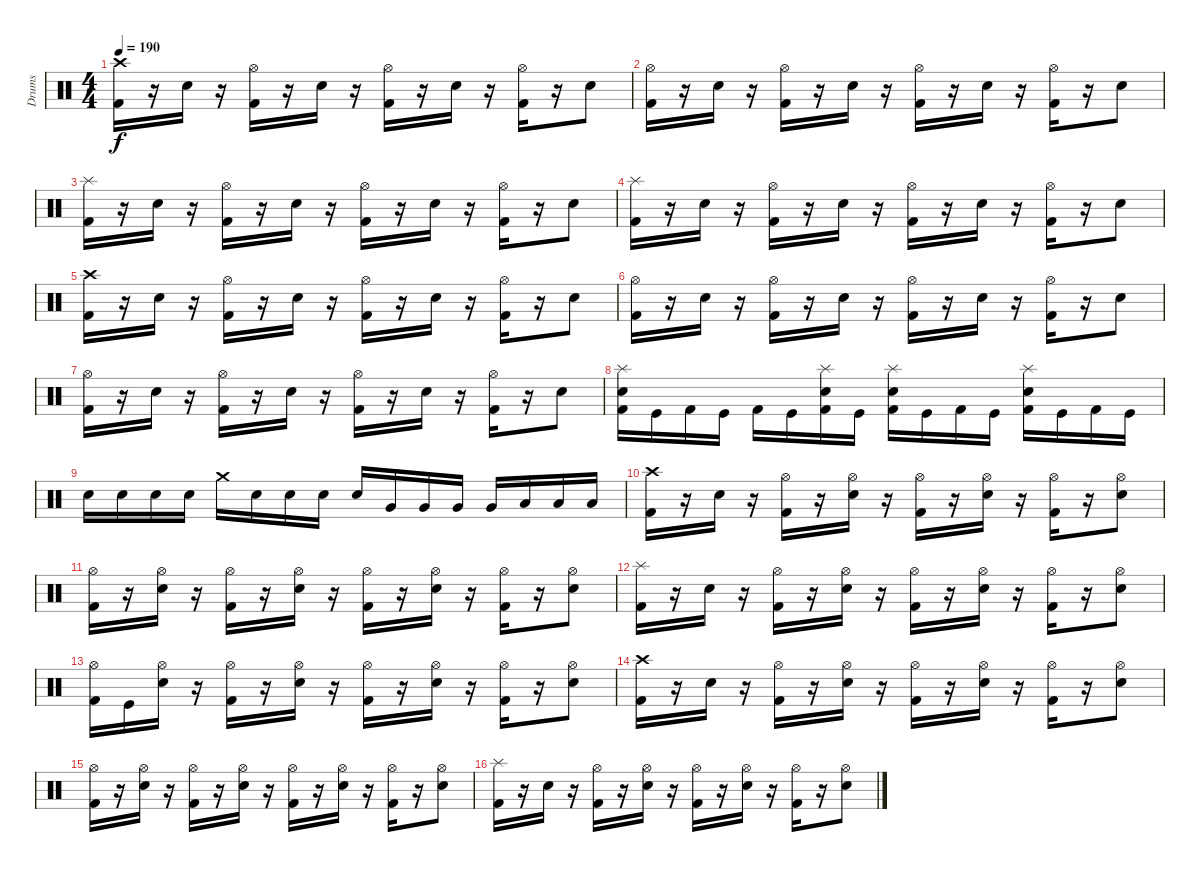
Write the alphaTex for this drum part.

\track ("Drums" "Drums") {instrument percussion}
\staff {score}
\articulation defaults
\ts (4 4)
\tempo 190
\clef neutral
\ks c
("Crash high (hit)" "Kick (hit) 2").16{dy f} r.16 "Electric Snare (hit)".16 r.16 ("Hi-Hat (open)" "Kick (hit) 2").16 r.16 "Electric Snare (hit)".16 r.16 ("Hi-Hat (open)" "Kick (hit) 2").16 r.16 "Electric Snare (hit)".16 r.16 ("Hi-Hat (open)" "Kick (hit) 2").16 r.16 "Electric Snare (hit)".8 |
("Hi-Hat (open)" "Kick (hit) 2").16 r.16 "Electric Snare (hit)".16 r.16 ("Hi-Hat (open)" "Kick (hit) 2").16 r.16 "Electric Snare (hit)".16 r.16 ("Hi-Hat (open)" "Kick (hit) 2").16 r.16 "Electric Snare (hit)".16 r.16 ("Hi-Hat (open)" "Kick (hit) 2").16 r.16 "Electric Snare (hit)".8 |
("Splash (hit)" "Kick (hit) 2").16 r.16 "Electric Snare (hit)".16 r.16 ("Hi-Hat (open)" "Kick (hit) 2").16 r.16 "Electric Snare (hit)".16 r.16 ("Hi-Hat (open)" "Kick (hit) 2").16 r.16 "Electric Snare (hit)".16 r.16 ("Hi-Hat (open)" "Kick (hit) 2").16 r.16 "Electric Snare (hit)".8 |
("Splash (hit)" "Kick (hit) 2").16 r.16 "Electric Snare (hit)".16 r.16 ("Hi-Hat (open)" "Kick (hit) 2").16 r.16 "Electric Snare (hit)".16 r.16 ("Hi-Hat (open)" "Kick (hit) 2").16 r.16 "Electric Snare (hit)".16 r.16 ("Hi-Hat (open)" "Kick (hit) 2").16 r.16 "Electric Snare (hit)".8 |
("Crash high (hit)" "Kick (hit) 2").16 r.16 "Electric Snare (hit)".16 r.16 ("Hi-Hat (open)" "Kick (hit) 2").16 r.16 "Electric Snare (hit)".16 r.16 ("Hi-Hat (open)" "Kick (hit) 2").16 r.16 "Electric Snare (hit)".16 r.16 ("Hi-Hat (open)" "Kick (hit) 2").16 r.16 "Electric Snare (hit)".8 |
("Hi-Hat (open)" "Kick (hit) 2").16 r.16 "Electric Snare (hit)".16 r.16 ("Hi-Hat (open)" "Kick (hit) 2").16 r.16 "Electric Snare (hit)".16 r.16 ("Hi-Hat (open)" "Kick (hit) 2").16 r.16 "Electric Snare (hit)".16 r.16 ("Hi-Hat (open)" "Kick (hit) 2").16 r.16 "Electric Snare (hit)".8 |
("Hi-Hat (open)" "Kick (hit) 2").16 r.16 "Electric Snare (hit)".16 r.16 ("Hi-Hat (open)" "Kick (hit) 2").16 r.16 "Electric Snare (hit)".16 r.16 ("Hi-Hat (open)" "Kick (hit) 2").16 r.16 "Electric Snare (hit)".16 r.16 ("Hi-Hat (open)" "Kick (hit) 2").16 r.16 "Electric Snare (hit)".8 |
("Splash (hit)" "Electric Snare (hit)" "Kick (hit) 2").16 "Kick (hit)".16 "Kick (hit) 2".16 "Kick (hit)".16 "Kick (hit) 2".16 "Kick (hit)".16 ("Splash (hit)" "Electric Snare (hit)" "Kick (hit) 2").16 "Kick (hit)".16 ("Splash (hit)" "Electric Snare (hit)" "Kick (hit) 2").16 "Kick (hit)".16 "Kick (hit) 2".16 "Kick (hit)".16 ("Splash (hit)" "Electric Snare (hit)" "Kick (hit) 2").16 "Kick (hit)".16 "Kick (hit) 2".16 "Kick (hit)".16 |
"Electric Snare (hit)".16 "Electric Snare (hit)".16 "Electric Snare (hit)".16 "Electric Snare (hit)".16 "Crash medium (hit)".16 "Electric Snare (hit)".16 "Electric Snare (hit)".16 "Electric Snare (hit)".16 "Electric Snare (hit)".16 "Very Low Tom (hit)".16 "Very Low Tom (hit)".16 "Very Low Tom (hit)".16 "Very Low Tom (hit)".16 "Low Floor Tom (hit)".16 "Low Floor Tom (hit)".16 "Low Floor Tom (hit)".16 |
("Crash high (hit)" "Kick (hit) 2").16 r.16 "Electric Snare (hit)".16 r.16 ("Hi-Hat (open)" "Kick (hit) 2").16 r.16 ("Hi-Hat (open)" "Electric Snare (hit)").16 r.16 ("Hi-Hat (open)" "Kick (hit) 2").16 r.16 ("Hi-Hat (open)" "Electric Snare (hit)").16 r.16 ("Hi-Hat (open)" "Kick (hit) 2").16 r.16 ("Hi-Hat (open)" "Electric Snare (hit)").8 |
("Hi-Hat (open)" "Kick (hit) 2").16 r.16 ("Hi-Hat (open)" "Electric Snare (hit)").16 r.16 ("Hi-Hat (open)" "Kick (hit) 2").16 r.16 ("Hi-Hat (open)" "Electric Snare (hit)").16 r.16 ("Hi-Hat (open)" "Kick (hit) 2").16 r.16 ("Hi-Hat (open)" "Electric Snare (hit)").16 r.16 ("Hi-Hat (open)" "Kick (hit) 2").16 r.16 ("Hi-Hat (open)" "Electric Snare (hit)").8 |
("Splash (hit)" "Kick (hit) 2").16 r.16 "Electric Snare (hit)".16 r.16 ("Hi-Hat (open)" "Kick (hit) 2").16 r.16 ("Hi-Hat (open)" "Electric Snare (hit)").16 r.16 ("Hi-Hat (open)" "Kick (hit) 2").16 r.16 ("Hi-Hat (open)" "Electric Snare (hit)").16 r.16 ("Hi-Hat (open)" "Kick (hit) 2").16 r.16 ("Hi-Hat (open)" "Electric Snare (hit)").8 |
("Hi-Hat (open)" "Kick (hit) 2").16 "Kick (hit)".16 ("Hi-Hat (open)" "Electric Snare (hit)").16 r.16 ("Hi-Hat (open)" "Kick (hit) 2").16 r.16 ("Hi-Hat (open)" "Electric Snare (hit)").16 r.16 ("Hi-Hat (open)" "Kick (hit) 2").16 r.16 ("Hi-Hat (open)" "Electric Snare (hit)").16 r.16 ("Hi-Hat (open)" "Kick (hit) 2").16 r.16 ("Hi-Hat (open)" "Electric Snare (hit)").8 |
("Crash high (hit)" "Kick (hit) 2").16 r.16 "Electric Snare (hit)".16 r.16 ("Hi-Hat (open)" "Kick (hit) 2").16 r.16 ("Hi-Hat (open)" "Electric Snare (hit)").16 r.16 ("Hi-Hat (open)" "Kick (hit) 2").16 r.16 ("Hi-Hat (open)" "Electric Snare (hit)").16 r.16 ("Hi-Hat (open)" "Kick (hit) 2").16 r.16 ("Hi-Hat (open)" "Electric Snare (hit)").8 |
("Hi-Hat (open)" "Kick (hit) 2").16 r.16 ("Hi-Hat (open)" "Electric Snare (hit)").16 r.16 ("Hi-Hat (open)" "Kick (hit) 2").16 r.16 ("Hi-Hat (open)" "Electric Snare (hit)").16 r.16 ("Hi-Hat (open)" "Kick (hit) 2").16 r.16 ("Hi-Hat (open)" "Electric Snare (hit)").16 r.16 ("Hi-Hat (open)" "Kick (hit) 2").16 r.16 ("Hi-Hat (open)" "Electric Snare (hit)").8 |
("Splash (hit)" "Kick (hit) 2").16 r.16 "Electric Snare (hit)".16 r.16 ("Hi-Hat (open)" "Kick (hit) 2").16 r.16 ("Hi-Hat (open)" "Electric Snare (hit)").16 r.16 ("Hi-Hat (open)" "Kick (hit) 2").16 r.16 ("Hi-Hat (open)" "Electric Snare (hit)").16 r.16 ("Hi-Hat (open)" "Kick (hit) 2").16 r.16 ("Hi-Hat (open)" "Electric Snare (hit)").8
